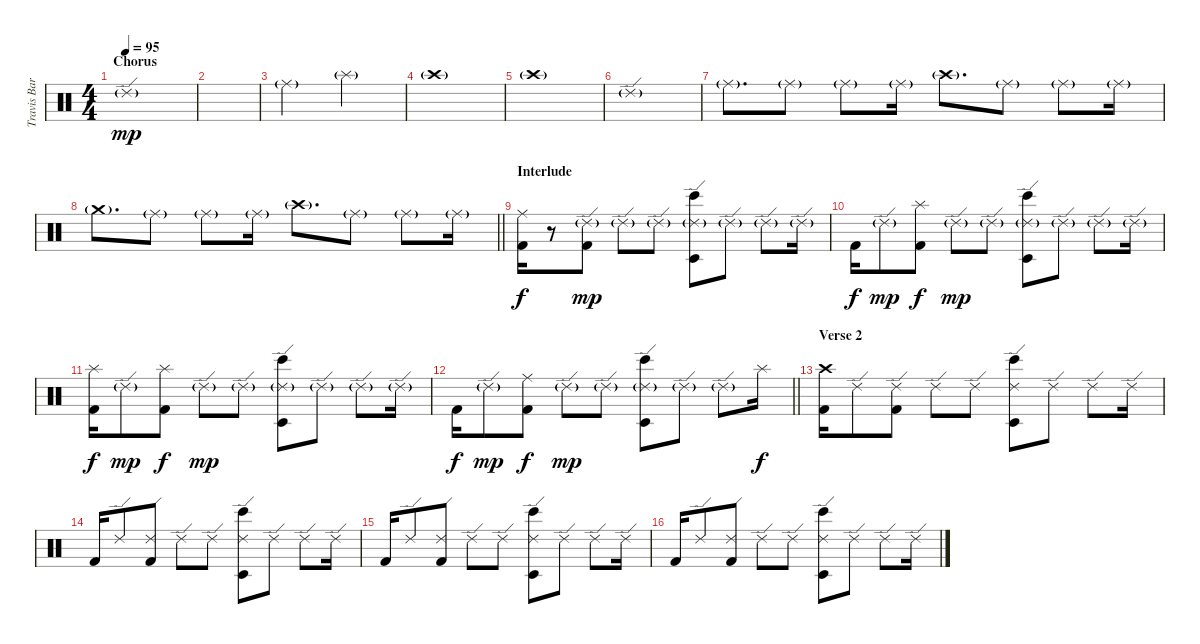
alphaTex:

\track ("Travis Barker [Drums]" "Travis Bar") {instrument percussion}
\staff {score}
\articulation defaults
\ts (4 4)
\section ("" "Chorus")
\tempo 95
\clef neutral
\ks c "Ride (edge) 2"{g}.1{dy mp}
|
|
"Ride (middle)"{g}.2 "Splash (hit)"{g}.2 |
"Crash high (hit)"{g}.1 |
"Crash high (hit)"{g}.1 |
"Ride (edge) 2"{g}.1 |
"Ride (middle)"{g}.8{d} "Ride (middle)"{g}.8 "Ride (middle)"{g}.8 "Ride (middle)"{g}.16 "Crash high (hit)"{g}.8{d} "Ride (middle)"{g}.8 "Ride (middle)"{g}.8 "Ride (middle)"{g}.16 |
\barLineRight lightlight "Crash medium (hit)"{g}.8{d} "Ride (middle)"{g}.8 "Ride (middle)"{g}.8 "Ride (middle)"{g}.16 "Crash high (hit)"{g}.8{d} "Ride (middle)"{g}.8 "Ride (middle)"{g}.8 "Ride (middle)"{g}.16
|
\section ("" "Interlude")
("Ride (middle)" "Kick (hit) 2").16{dy f} r.8 ("Ride (edge) 2"{g} "Kick (hit) 2").8{dy mp} "Ride (edge) 2"{g}.8 "Ride (edge) 2"{g}.8 ("Ride (edge) 2"{g} "Timbale low (hit)" "Bongo High (hit)").8 "Ride (edge) 2"{g}.8 "Ride (edge) 2"{g}.8 "Ride (edge) 2"{g}.16 |
"Kick (hit) 2".16{dy f} "Ride (edge) 2"{g}.8{dy mp} ("Splash (hit)" "Kick (hit) 2").8{dy f} "Ride (edge) 2"{g}.8{dy mp} "Ride (edge) 2"{g}.8 ("Ride (edge) 2"{g} "Timbale low (hit)" "Bongo High (hit)").8 "Ride (edge) 2"{g}.8 "Ride (edge) 2"{g}.8 "Ride (edge) 2"{g}.16 |
("Splash (hit)" "Kick (hit) 2").16{dy f} "Ride (edge) 2"{g}.8{dy mp} ("Splash (hit)" "Kick (hit) 2").8{dy f} "Ride (edge) 2"{g}.8{dy mp} "Ride (edge) 2"{g}.8 ("Ride (edge) 2"{g} "Timbale low (hit)" "Bongo High (hit)").8 "Ride (edge) 2"{g}.8 "Ride (edge) 2"{g}.8 "Ride (edge) 2"{g}.16 |
\barLineRight lightlight "Kick (hit) 2".16{dy f} "Ride (edge) 2"{g}.8{dy mp}
("Ride (middle)" "Kick (hit) 2").8{dy f} "Ride (edge) 2"{g}.8{dy mp} "Ride (edge) 2"{g}.8 ("Ride (edge) 2"{g} "Timbale low (hit)" "Bongo High (hit)").8 "Ride (edge) 2"{g}.8 "Ride (edge) 2"{g}.8 "Splash (hit)".16{dy f} |
\section ("" "Verse 2")
("Crash high (hit)" "Kick (hit) 2").16 "Ride (edge) 2".8 ("Ride (edge) 2" "Kick (hit) 2").8 "Ride (edge) 2".8 "Ride (edge) 2".8 ("Ride (edge) 2" "Timbale low (hit)" "Bongo High (hit)").8 "Ride (edge) 2".8 "Ride (edge) 2".8 "Ride (edge) 2".16 |
"Kick (hit) 2".16 "Ride (edge) 2".8 ("Ride (edge) 2" "Kick (hit) 2").8 "Ride (edge) 2".8 "Ride (edge) 2".8 ("Ride (edge) 2" "Timbale low (hit)" "Bongo High (hit)").8 "Ride (edge) 2".8 "Ride (edge) 2".8 "Ride (edge) 2".16 |
"Kick (hit) 2".16 "Ride (edge) 2".8 ("Ride (edge) 2" "Kick (hit) 2").8 "Ride (edge) 2".8 "Ride (edge) 2".8 ("Ride (edge) 2" "Timbale low (hit)" "Bongo High (hit)").8 "Ride (edge) 2".8 "Ride (edge) 2".8 "Ride (edge) 2".16 |
"Kick (hit) 2".16 "Ride (edge) 2".8 ("Ride (edge) 2" "Kick (hit) 2").8 "Ride (edge) 2".8 "Ride (edge) 2".8 ("Ride (edge) 2" "Timbale low (hit)" "Bongo High (hit)").8 "Ride (edge) 2".8 "Ride (edge) 2".8 "Ride (edge) 2".16
